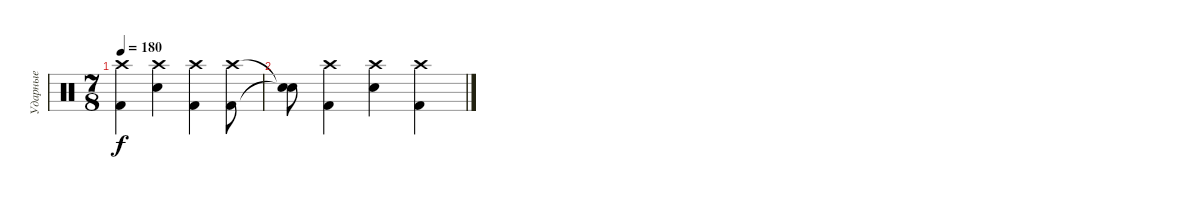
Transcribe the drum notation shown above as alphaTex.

\track ("Ударные" "Ударные") {instrument percussion}
\staff {score}
\articulation defaults
\ts (7 8)
\tempo 180
\clef neutral
\ks c
("Crash high (hit)" "Kick (hit) 2").4{dy f} ("Crash high (hit)" "Snare (hit) 2").4 ("Crash high (hit)" "Kick (hit) 2").4 ("Crash high (hit)" "Kick (hit) 2").8 |
("Snare (hit)"{t} "Snare (hit)"{t}).8 ("Crash high (hit)" "Kick (hit) 2").4 ("Crash high (hit)" "Snare (hit) 2").4 ("Crash high (hit)" "Kick (hit) 2").4
